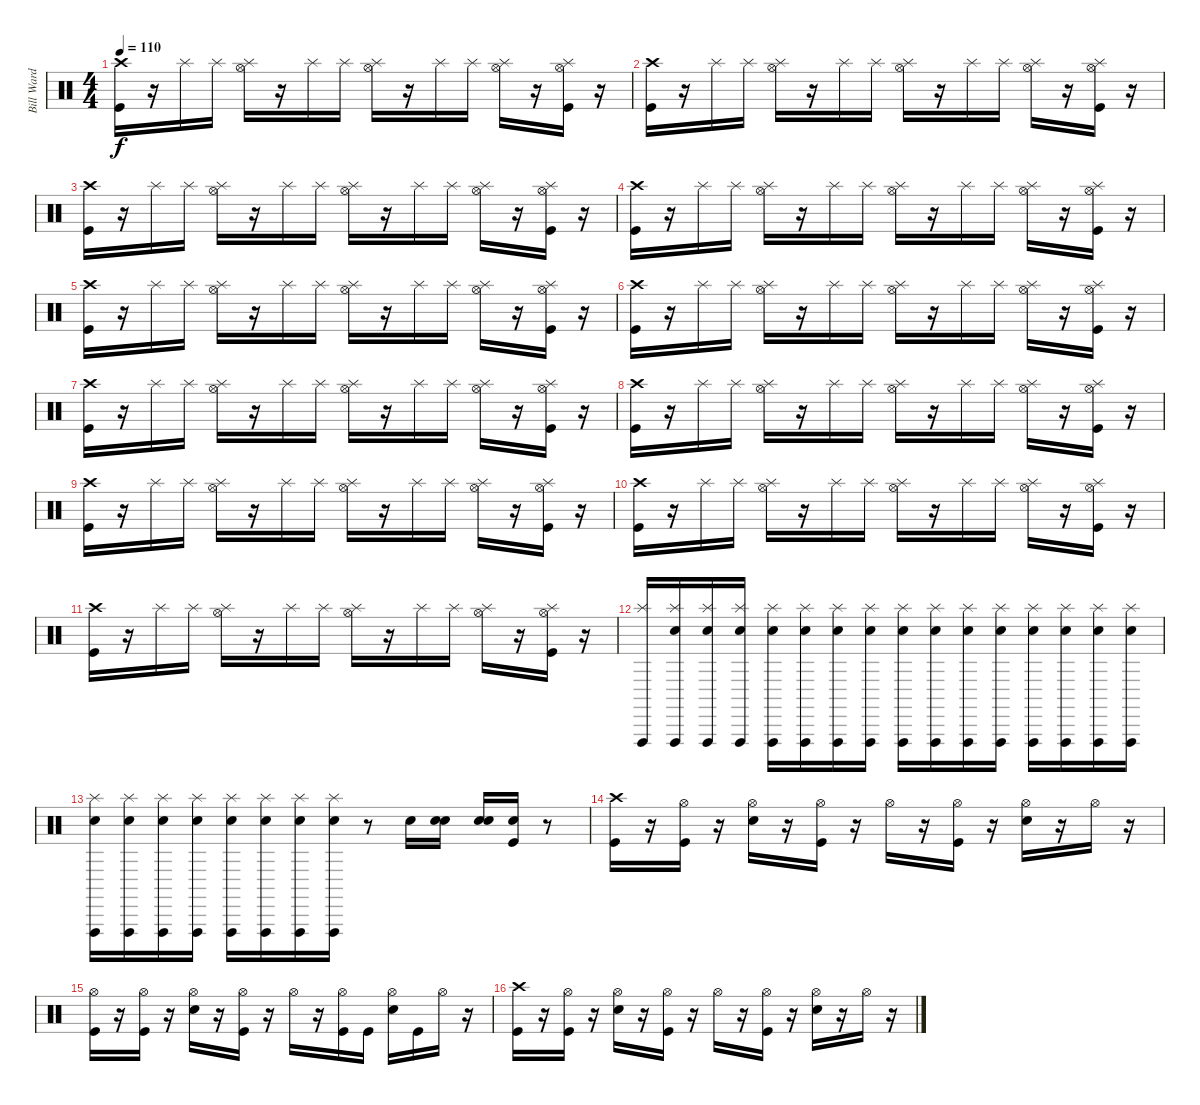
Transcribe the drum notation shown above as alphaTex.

\track ("Bill Ward" "Bill Ward") {instrument percussion}
\staff {score}
\articulation defaults
\ts (4 4)
\tempo 110
\clef neutral
\ks c
("Kick (hit)" "Crash high (hit)").16{dy f} r.16 "Splash (hit)".16 "Splash (hit)".16 ("Hi-Hat (open)" "Splash (hit)").16 r.16 "Splash (hit)".16 "Splash (hit)".16 ("Hi-Hat (open)" "Splash (hit)").16 r.16 "Splash (hit)".16 "Splash (hit)".16 ("Hi-Hat (open)" "Splash (hit)").16 r.16 ("Kick (hit)" "Hi-Hat (open)" "Splash (hit)").16 r.16 |
("Crash high (hit)" "Kick (hit)").16 r.16 "Splash (hit)".16 "Splash (hit)".16 ("Hi-Hat (open)" "Splash (hit)").16 r.16 "Splash (hit)".16 "Splash (hit)".16 ("Hi-Hat (open)" "Splash (hit)").16 r.16 "Splash (hit)".16 "Splash (hit)".16 ("Hi-Hat (open)" "Splash (hit)").16 r.16 ("Kick (hit)" "Hi-Hat (open)" "Splash (hit)").16 r.16 |
("Crash high (hit)" "Kick (hit)").16 r.16 "Splash (hit)".16 "Splash (hit)".16 ("Hi-Hat (open)" "Splash (hit)").16 r.16 "Splash (hit)".16 "Splash (hit)".16 ("Hi-Hat (open)" "Splash (hit)").16 r.16 "Splash (hit)".16 "Splash (hit)".16 ("Hi-Hat (open)" "Splash (hit)").16 r.16 ("Kick (hit)" "Hi-Hat (open)" "Splash (hit)").16 r.16 |
("Crash high (hit)" "Kick (hit)").16 r.16 "Splash (hit)".16 "Splash (hit)".16 ("Hi-Hat (open)" "Splash (hit)").16 r.16 "Splash (hit)".16 "Splash (hit)".16 ("Hi-Hat (open)" "Splash (hit)").16 r.16 "Splash (hit)".16 "Splash (hit)".16 ("Hi-Hat (open)" "Splash (hit)").16 r.16 ("Kick (hit)" "Hi-Hat (open)" "Splash (hit)").16 r.16 |
("Crash high (hit)" "Kick (hit)").16 r.16 "Splash (hit)".16 "Splash (hit)".16 ("Hi-Hat (open)" "Splash (hit)").16 r.16 "Splash (hit)".16 "Splash (hit)".16 ("Hi-Hat (open)" "Splash (hit)").16 r.16 "Splash (hit)".16 "Splash (hit)".16 ("Hi-Hat (open)" "Splash (hit)").16 r.16 ("Kick (hit)" "Hi-Hat (open)" "Splash (hit)").16 r.16 |
("Crash high (hit)" "Kick (hit)").16 r.16 "Splash (hit)".16 "Splash (hit)".16 ("Hi-Hat (open)" "Splash (hit)").16 r.16 "Splash (hit)".16 "Splash (hit)".16 ("Hi-Hat (open)" "Splash (hit)").16 r.16 "Splash (hit)".16 "Splash (hit)".16 ("Hi-Hat (open)" "Splash (hit)").16 r.16 ("Kick (hit)" "Hi-Hat (open)" "Splash (hit)").16 r.16 |
("Crash high (hit)" "Kick (hit)").16 r.16 "Splash (hit)".16 "Splash (hit)".16 ("Hi-Hat (open)" "Splash (hit)").16 r.16 "Splash (hit)".16 "Splash (hit)".16 ("Hi-Hat (open)" "Splash (hit)").16 r.16 "Splash (hit)".16 "Splash (hit)".16 ("Hi-Hat (open)" "Splash (hit)").16 r.16 ("Kick (hit)" "Hi-Hat (open)" "Splash (hit)").16 r.16 |
("Crash high (hit)" "Kick (hit)").16 r.16 "Splash (hit)".16 "Splash (hit)".16 ("Hi-Hat (open)" "Splash (hit)").16 r.16 "Splash (hit)".16 "Splash (hit)".16 ("Hi-Hat (open)" "Splash (hit)").16 r.16 "Splash (hit)".16 "Splash (hit)".16 ("Hi-Hat (open)" "Splash (hit)").16 r.16 ("Kick (hit)" "Hi-Hat (open)" "Splash (hit)").16 r.16 |
("Crash high (hit)" "Kick (hit)").16 r.16 "Splash (hit)".16 "Splash (hit)".16 ("Hi-Hat (open)" "Splash (hit)").16 r.16 "Splash (hit)".16 "Splash (hit)".16 ("Hi-Hat (open)" "Splash (hit)").16 r.16 "Splash (hit)".16 "Splash (hit)".16 ("Hi-Hat (open)" "Splash (hit)").16 r.16 ("Kick (hit)" "Hi-Hat (open)" "Splash (hit)").16 r.16 |
("Crash high (hit)" "Kick (hit)").16 r.16 "Splash (hit)".16 "Splash (hit)".16 ("Hi-Hat (open)" "Splash (hit)").16 r.16 "Splash (hit)".16 "Splash (hit)".16 ("Hi-Hat (open)" "Splash (hit)").16 r.16 "Splash (hit)".16 "Splash (hit)".16 ("Hi-Hat (open)" "Splash (hit)").16 r.16 ("Kick (hit)" "Hi-Hat (open)" "Splash (hit)").16 r.16 |
("Crash high (hit)" "Kick (hit)").16 r.16 "Splash (hit)".16 "Splash (hit)".16 ("Hi-Hat (open)" "Splash (hit)").16 r.16 "Splash (hit)".16 "Splash (hit)".16 ("Hi-Hat (open)" "Splash (hit)").16 r.16 "Splash (hit)".16 "Splash (hit)".16 ("Hi-Hat (open)" "Splash (hit)").16 r.16 ("Kick (hit)" "Hi-Hat (open)" "Splash (hit)").16 r.16 |
("Vibraslap (hit)" "Splash (hit)").16 ("Snare (hit)" "Vibraslap (hit)" "Splash (hit)").16 ("Snare (hit)" "Vibraslap (hit)" "Splash (hit)").16 ("Snare (hit)" "Vibraslap (hit)" "Splash (hit)").16 ("Snare (hit)" "Vibraslap (hit)" "Splash (hit)").16 ("Snare (hit)" "Vibraslap (hit)" "Splash (hit)").16 ("Snare (hit)" "Vibraslap (hit)" "Splash (hit)").16 ("Snare (hit)" "Vibraslap (hit)" "Splash (hit)").16 ("Snare (hit)" "Vibraslap (hit)" "Splash (hit)").16 ("Snare (hit)" "Vibraslap (hit)" "Splash (hit)").16 ("Snare (hit)" "Vibraslap (hit)" "Splash (hit)").16 ("Snare (hit)" "Vibraslap (hit)" "Splash (hit)").16 ("Snare (hit)" "Vibraslap (hit)" "Splash (hit)").16 ("Snare (hit)" "Vibraslap (hit)" "Splash (hit)").16 ("Snare (hit)" "Vibraslap (hit)" "Splash (hit)").16 ("Snare (hit)" "Vibraslap (hit)" "Splash (hit)").16 |
("Snare (hit)" "Vibraslap (hit)" "Splash (hit)").16 ("Snare (hit)" "Vibraslap (hit)" "Splash (hit)").16 ("Snare (hit)" "Vibraslap (hit)" "Splash (hit)").16 ("Snare (hit)" "Vibraslap (hit)" "Splash (hit)").16 ("Snare (hit)" "Vibraslap (hit)" "Splash (hit)").16 ("Snare (hit)" "Vibraslap (hit)" "Splash (hit)").16 ("Snare (hit)" "Vibraslap (hit)" "Splash (hit)").16 ("Snare (hit)" "Vibraslap (hit)" "Splash (hit)").16 r.8 "Snare (hit) 2".16 ("Snare (hit)" "Snare (hit) 2").16 ("Snare (hit)" "Snare (hit) 2").16 ("Snare (hit)" "Kick (hit)").16 r.8 |
("Crash high (hit)" "Kick (hit)").16 r.16 ("Kick (hit)" "Hi-Hat (open)").16 r.16 ("Snare (hit) 2" "Hi-Hat (open)").16 r.16 ("Kick (hit)" "Hi-Hat (open)").16 r.16 "Hi-Hat (open)".16 r.16 ("Kick (hit)" "Hi-Hat (open)").16 r.16 ("Hi-Hat (open)" "Snare (hit) 2").16 r.16 "Hi-Hat (open)".16 r.16 |
("Kick (hit)" "Hi-Hat (open)").16 r.16 ("Kick (hit)" "Hi-Hat (open)").16 r.16 ("Snare (hit) 2" "Hi-Hat (open)").16 r.16 ("Kick (hit)" "Hi-Hat (open)").16 r.16 "Hi-Hat (open)".16 r.16 ("Kick (hit)" "Hi-Hat (open)").16 "Kick (hit)".16 ("Hi-Hat (open)" "Snare (hit) 2").16 "Kick (hit)".16 "Hi-Hat (open)".16 r.16 |
("Kick (hit)" "Crash high (hit)").16 r.16 ("Kick (hit)" "Hi-Hat (open)").16 r.16 ("Snare (hit) 2" "Hi-Hat (open)").16 r.16 ("Kick (hit)" "Hi-Hat (open)").16 r.16 "Hi-Hat (open)".16 r.16 ("Kick (hit)" "Hi-Hat (open)").16 r.16 ("Hi-Hat (open)" "Snare (hit) 2").16 r.16 "Hi-Hat (open)".16 r.16
